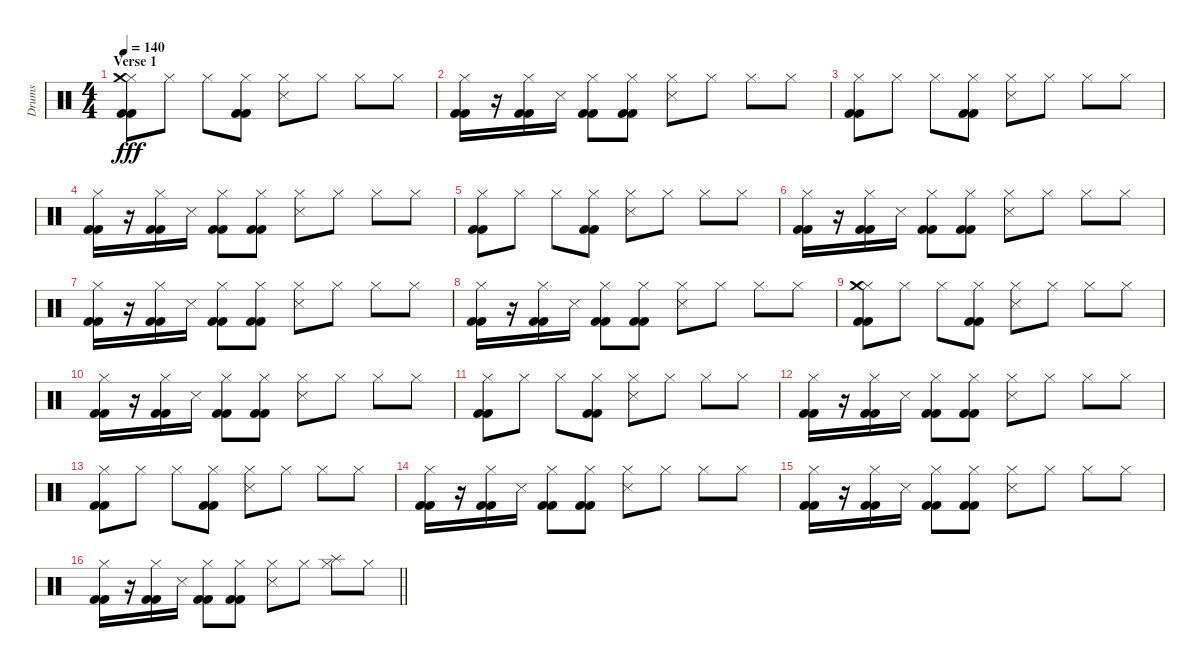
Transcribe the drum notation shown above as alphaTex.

\track ("Drums" "Drums") {instrument percussion}
\staff {score}
\articulation defaults
\ts (4 4)
\section ("" "Verse 1")
\tempo 140
\clef neutral
\ks c
("Hi-Hat (closed)" "Kick (hit) 2" "Crash medium (hit)" "Kick (hit) 2").8{dy fff} "Hi-Hat (closed)".8 "Hi-Hat (closed)".8 ("Hi-Hat (closed)" "Kick (hit) 2" "Kick (hit) 2").8 ("Hi-Hat (closed)" "Snare (side stick) 3").8 "Hi-Hat (closed)".8 "Hi-Hat (closed)".8 "Hi-Hat (closed)".8 |
("Kick (hit) 2" "Hi-Hat (closed)" "Kick (hit) 2").16 r.16 ("Kick (hit) 2" "Kick (hit) 2" "Hi-Hat (closed)").16 "Snare (side stick) 3".16 ("Kick (hit) 2" "Kick (hit) 2" "Hi-Hat (closed)").8 ("Kick (hit) 2" "Kick (hit) 2" "Hi-Hat (closed)").8 ("Snare (side stick) 3" "Hi-Hat (closed)").8 "Hi-Hat (closed)".8 "Hi-Hat (closed)".8 "Hi-Hat (closed)".8 |
("Hi-Hat (closed)" "Kick (hit) 2" "Kick (hit) 2").8 "Hi-Hat (closed)".8 "Hi-Hat (closed)".8 ("Hi-Hat (closed)" "Kick (hit) 2" "Kick (hit) 2").8 ("Hi-Hat (closed)" "Snare (side stick) 3").8 "Hi-Hat (closed)".8 "Hi-Hat (closed)".8 "Hi-Hat (closed)".8 |
("Kick (hit) 2" "Hi-Hat (closed)" "Kick (hit) 2").16 r.16 ("Kick (hit) 2" "Kick (hit) 2" "Hi-Hat (closed)").16 "Snare (side stick) 3".16 ("Kick (hit) 2" "Kick (hit) 2" "Hi-Hat (closed)").8 ("Kick (hit) 2" "Kick (hit) 2" "Hi-Hat (closed)").8 ("Snare (side stick) 3" "Hi-Hat (closed)").8 "Hi-Hat (closed)".8 "Hi-Hat (closed)".8 "Hi-Hat (closed)".8 |
("Hi-Hat (closed)" "Kick (hit) 2" "Kick (hit) 2").8 "Hi-Hat (closed)".8 "Hi-Hat (closed)".8 ("Hi-Hat (closed)" "Kick (hit) 2" "Kick (hit) 2").8 ("Hi-Hat (closed)" "Snare (side stick) 3").8 "Hi-Hat (closed)".8 "Hi-Hat (closed)".8 "Hi-Hat (closed)".8 |
("Kick (hit) 2" "Hi-Hat (closed)" "Kick (hit) 2").16 r.16 ("Kick (hit) 2" "Kick (hit) 2" "Hi-Hat (closed)").16 "Snare (side stick) 3".16 ("Kick (hit) 2" "Kick (hit) 2" "Hi-Hat (closed)").8 ("Kick (hit) 2" "Kick (hit) 2" "Hi-Hat (closed)").8 ("Snare (side stick) 3" "Hi-Hat (closed)").8 "Hi-Hat (closed)".8 "Hi-Hat (closed)".8 "Hi-Hat (closed)".8 |
("Kick (hit) 2" "Hi-Hat (closed)" "Kick (hit) 2").16 r.16 ("Kick (hit) 2" "Kick (hit) 2" "Hi-Hat (closed)").16 "Snare (side stick) 3".16 ("Kick (hit) 2" "Kick (hit) 2" "Hi-Hat (closed)").8 ("Kick (hit) 2" "Kick (hit) 2" "Hi-Hat (closed)").8 ("Snare (side stick) 3" "Hi-Hat (closed)").8 "Hi-Hat (closed)".8 "Hi-Hat (closed)".8 "Hi-Hat (closed)".8 |
("Kick (hit) 2" "Hi-Hat (closed)" "Kick (hit) 2").16 r.16 ("Kick (hit) 2" "Kick (hit) 2" "Hi-Hat (closed)").16 "Snare (side stick) 3".16 ("Kick (hit) 2" "Kick (hit) 2" "Hi-Hat (closed)").8 ("Kick (hit) 2" "Kick (hit) 2" "Hi-Hat (closed)").8 ("Snare (side stick) 3" "Hi-Hat (closed)").8 "Hi-Hat (closed)".8 "Hi-Hat (closed)".8 "Hi-Hat (closed)".8 |
("Hi-Hat (closed)" "Kick (hit) 2" "Crash medium (hit)" "Kick (hit) 2").8 "Hi-Hat (closed)".8 "Hi-Hat (closed)".8 ("Hi-Hat (closed)" "Kick (hit) 2" "Kick (hit) 2").8 ("Hi-Hat (closed)" "Snare (side stick) 3").8 "Hi-Hat (closed)".8 "Hi-Hat (closed)".8 "Hi-Hat (closed)".8 |
("Kick (hit) 2" "Hi-Hat (closed)" "Kick (hit) 2").16 r.16 ("Kick (hit) 2" "Kick (hit) 2" "Hi-Hat (closed)").16 "Snare (side stick) 3".16 ("Kick (hit) 2" "Kick (hit) 2" "Hi-Hat (closed)").8 ("Kick (hit) 2" "Kick (hit) 2" "Hi-Hat (closed)").8 ("Snare (side stick) 3" "Hi-Hat (closed)").8 "Hi-Hat (closed)".8 "Hi-Hat (closed)".8 "Hi-Hat (closed)".8 |
("Hi-Hat (closed)" "Kick (hit) 2" "Kick (hit) 2").8 "Hi-Hat (closed)".8 "Hi-Hat (closed)".8 ("Hi-Hat (closed)" "Kick (hit) 2" "Kick (hit) 2").8 ("Hi-Hat (closed)" "Snare (side stick) 3").8 "Hi-Hat (closed)".8 "Hi-Hat (closed)".8 "Hi-Hat (closed)".8 |
("Kick (hit) 2" "Hi-Hat (closed)" "Kick (hit) 2").16 r.16 ("Kick (hit) 2" "Kick (hit) 2" "Hi-Hat (closed)").16 "Snare (side stick) 3".16 ("Kick (hit) 2" "Kick (hit) 2" "Hi-Hat (closed)").8 ("Kick (hit) 2" "Kick (hit) 2" "Hi-Hat (closed)").8 ("Snare (side stick) 3" "Hi-Hat (closed)").8 "Hi-Hat (closed)".8 "Hi-Hat (closed)".8 "Hi-Hat (closed)".8 |
("Hi-Hat (closed)" "Kick (hit) 2" "Kick (hit) 2").8 "Hi-Hat (closed)".8 "Hi-Hat (closed)".8 ("Hi-Hat (closed)" "Kick (hit) 2" "Kick (hit) 2").8 ("Hi-Hat (closed)" "Snare (side stick) 3").8 "Hi-Hat (closed)".8 "Hi-Hat (closed)".8 "Hi-Hat (closed)".8 |
("Kick (hit) 2" "Hi-Hat (closed)" "Kick (hit) 2").16 r.16 ("Kick (hit) 2" "Kick (hit) 2" "Hi-Hat (closed)").16 "Snare (side stick) 3".16 ("Kick (hit) 2" "Kick (hit) 2" "Hi-Hat (closed)").8 ("Kick (hit) 2" "Kick (hit) 2" "Hi-Hat (closed)").8 ("Snare (side stick) 3" "Hi-Hat (closed)").8 "Hi-Hat (closed)".8 "Hi-Hat (closed)".8 "Hi-Hat (closed)".8 |
("Kick (hit) 2" "Hi-Hat (closed)" "Kick (hit) 2").16 r.16 ("Kick (hit) 2" "Kick (hit) 2" "Hi-Hat (closed)").16 "Snare (side stick) 3".16 ("Kick (hit) 2" "Kick (hit) 2" "Hi-Hat (closed)").8 ("Kick (hit) 2" "Kick (hit) 2" "Hi-Hat (closed)").8 ("Snare (side stick) 3" "Hi-Hat (closed)").8 "Hi-Hat (closed)".8 "Hi-Hat (closed)".8 "Hi-Hat (closed)".8 |
\barLineRight lightlight
("Kick (hit) 2" "Hi-Hat (closed)" "Kick (hit) 2").16 r.16 ("Kick (hit) 2" "Kick (hit) 2" "Hi-Hat (closed)").16 "Snare (side stick) 3".16 ("Kick (hit) 2" "Kick (hit) 2" "Hi-Hat (closed)").8 ("Kick (hit) 2" "Kick (hit) 2" "Hi-Hat (closed)").8 ("Snare (side stick) 3" "Hi-Hat (closed)").8 "Hi-Hat (closed)".8 ("Hi-Hat (closed)" "Splash (hit)").8 "Hi-Hat (closed)".8
